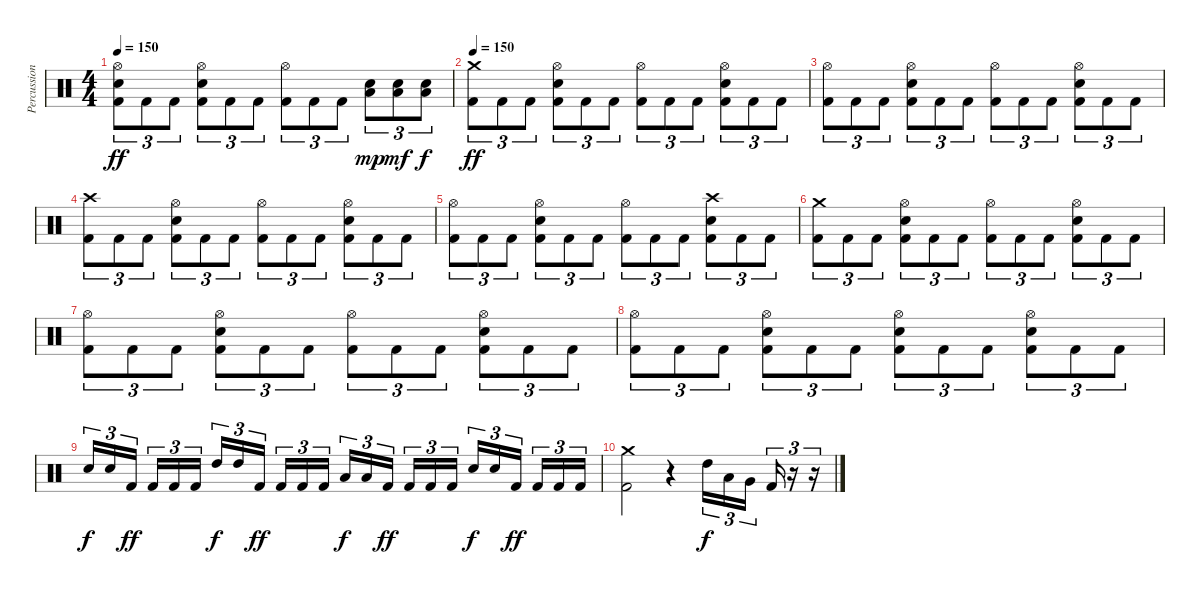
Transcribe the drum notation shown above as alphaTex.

\track ("Percussion" "Percussion") {instrument percussion}
\staff {score}
\articulation defaults
\ts (4 4)
\tempo 150
\clef neutral
\ks c
("Hi-Hat (open)" "Electric Snare (hit)" "Kick (hit) 2").8{tu (3 2) dy ff} "Kick (hit) 2".8{tu (3 2)} "Kick (hit) 2".8{tu (3 2)} ("Hi-Hat (open)" "Electric Snare (hit)" "Kick (hit) 2").8{tu (3 2)} "Kick (hit) 2".8{tu (3 2)} "Kick (hit) 2".8{tu (3 2)} ("Hi-Hat (open)" "Kick (hit) 2").8{tu (3 2)} "Kick (hit) 2".8{tu (3 2)} "Kick (hit) 2".8{tu (3 2)} ("Electric Snare (hit)" "Low Floor Tom (hit)").8{tu (3 2) dy mp} ("Electric Snare (hit)" "Low Floor Tom (hit)").8{tu (3 2) dy mf} ("Electric Snare (hit)" "Low Floor Tom (hit)").8{tu (3 2) dy f} |
\tempo 150
("Crash medium (hit)" "Kick (hit) 2").8{tu (3 2) dy ff} "Kick (hit) 2".8{tu (3 2)} "Kick (hit) 2".8{tu (3 2)} ("Hi-Hat (open)" "Electric Snare (hit)" "Kick (hit) 2").8{tu (3 2)} "Kick (hit) 2".8{tu (3 2)} "Kick (hit) 2".8{tu (3 2)} ("Hi-Hat (open)" "Kick (hit) 2").8{tu (3 2)} "Kick (hit) 2".8{tu (3 2)} "Kick (hit) 2".8{tu (3 2)} ("Hi-Hat (open)" "Electric Snare (hit)" "Kick (hit) 2").8{tu (3 2)} "Kick (hit) 2".8{tu (3 2)} "Kick (hit) 2".8{tu (3 2)} |
("Hi-Hat (open)" "Kick (hit) 2").8{tu (3 2)} "Kick (hit) 2".8{tu (3 2)} "Kick (hit) 2".8{tu (3 2)} ("Hi-Hat (open)" "Electric Snare (hit)" "Kick (hit) 2").8{tu (3 2)} "Kick (hit) 2".8{tu (3 2)} "Kick (hit) 2".8{tu (3 2)} ("Hi-Hat (open)" "Kick (hit) 2").8{tu (3 2)} "Kick (hit) 2".8{tu (3 2)} "Kick (hit) 2".8{tu (3 2)} ("Hi-Hat (open)" "Electric Snare (hit)" "Kick (hit) 2").8{tu (3 2)} "Kick (hit) 2".8{tu (3 2)} "Kick (hit) 2".8{tu (3 2)} |
("Crash high (hit)" "Kick (hit) 2").8{tu (3 2)} "Kick (hit) 2".8{tu (3 2)} "Kick (hit) 2".8{tu (3 2)} ("Hi-Hat (open)" "Electric Snare (hit)" "Kick (hit) 2").8{tu (3 2)} "Kick (hit) 2".8{tu (3 2)} "Kick (hit) 2".8{tu (3 2)} ("Hi-Hat (open)" "Kick (hit) 2").8{tu (3 2)} "Kick (hit) 2".8{tu (3 2)} "Kick (hit) 2".8{tu (3 2)} ("Hi-Hat (open)" "Electric Snare (hit)" "Kick (hit) 2").8{tu (3 2)} "Kick (hit) 2".8{tu (3 2)} "Kick (hit) 2".8{tu (3 2)} |
("Hi-Hat (open)" "Kick (hit) 2").8{tu (3 2)} "Kick (hit) 2".8{tu (3 2)} "Kick (hit) 2".8{tu (3 2)} ("Hi-Hat (open)" "Electric Snare (hit)" "Kick (hit) 2").8{tu (3 2)} "Kick (hit) 2".8{tu (3 2)} "Kick (hit) 2".8{tu (3 2)} ("Hi-Hat (open)" "Kick (hit) 2").8{tu (3 2)} "Kick (hit) 2".8{tu (3 2)} "Kick (hit) 2".8{tu (3 2)} ("Crash high (hit)" "Electric Snare (hit)" "Kick (hit) 2").8{tu (3 2)} "Kick (hit) 2".8{tu (3 2)} "Kick (hit) 2".8{tu (3 2)} |
("Crash medium (hit)" "Kick (hit) 2").8{tu (3 2)} "Kick (hit) 2".8{tu (3 2)} "Kick (hit) 2".8{tu (3 2)} ("Hi-Hat (open)" "Electric Snare (hit)" "Kick (hit) 2").8{tu (3 2)} "Kick (hit) 2".8{tu (3 2)} "Kick (hit) 2".8{tu (3 2)} ("Hi-Hat (open)" "Kick (hit) 2").8{tu (3 2)} "Kick (hit) 2".8{tu (3 2)} "Kick (hit) 2".8{tu (3 2)} ("Hi-Hat (open)" "Electric Snare (hit)" "Kick (hit) 2").8{tu (3 2)} "Kick (hit) 2".8{tu (3 2)} "Kick (hit) 2".8{tu (3 2)} |
("Hi-Hat (open)" "Kick (hit) 2").8{tu (3 2)} "Kick (hit) 2".8{tu (3 2)} "Kick (hit) 2".8{tu (3 2)} ("Hi-Hat (open)" "Electric Snare (hit)" "Kick (hit) 2").8{tu (3 2)} "Kick (hit) 2".8{tu (3 2)} "Kick (hit) 2".8{tu (3 2)} ("Hi-Hat (open)" "Kick (hit) 2").8{tu (3 2)} "Kick (hit) 2".8{tu (3 2)} "Kick (hit) 2".8{tu (3 2)} ("Hi-Hat (open)" "Electric Snare (hit)" "Kick (hit) 2").8{tu (3 2)} "Kick (hit) 2".8{tu (3 2)} "Kick (hit) 2".8{tu (3 2)} |
("Hi-Hat (open)" "Kick (hit) 2").8{tu (3 2)} "Kick (hit) 2".8{tu (3 2)} "Kick (hit) 2".8{tu (3 2)} ("Hi-Hat (open)" "Electric Snare (hit)" "Kick (hit) 2").8{tu (3 2)} "Kick (hit) 2".8{tu (3 2)} "Kick (hit) 2".8{tu (3 2)} ("Hi-Hat (open)" "Electric Snare (hit)" "Kick (hit) 2").8{tu (3 2)} "Kick (hit) 2".8{tu (3 2)} "Kick (hit) 2".8{tu (3 2)} ("Hi-Hat (open)" "Electric Snare (hit)" "Kick (hit) 2").8{tu (3 2)} "Kick (hit) 2".8{tu (3 2)} "Kick (hit) 2".8{tu (3 2)} |
"Electric Snare (hit)".16{tu (3 2) dy f} "Electric Snare (hit)".16{tu (3 2)} "Kick (hit) 2".16{tu (3 2) dy ff} "Kick (hit) 2".16{tu (3 2)} "Kick (hit) 2".16{tu (3 2)} "Kick (hit) 2".16{tu (3 2)} "High Tom (hit)".16{tu (3 2) dy f} "High Tom (hit)".16{tu (3 2)} "Kick (hit) 2".16{tu (3 2) dy ff} "Kick (hit) 2".16{tu (3 2)} "Kick (hit) 2".16{tu (3 2)} "Kick (hit) 2".16{tu (3 2)} "Low Tom (hit)".16{tu (3 2) dy f} "Low Tom (hit)".16{tu (3 2)} "Kick (hit) 2".16{tu (3 2) dy ff} "Kick (hit) 2".16{tu (3 2)} "Kick (hit) 2".16{tu (3 2)} "Kick (hit) 2".16{tu (3 2)} "Electric Snare (hit)".16{tu (3 2) dy f} "Electric Snare (hit)".16{tu (3 2)} "Kick (hit) 2".16{tu (3 2) dy ff} "Kick (hit) 2".16{tu (3 2)} "Kick (hit) 2".16{tu (3 2)} "Kick (hit) 2".16{tu (3 2)} |
("Crash medium (hit)" "Kick (hit) 2").2 r.4 "High Tom (hit)".16{tu (3 2) dy f} "Low Tom (hit)".16{tu (3 2)} "Very Low Tom (hit)".16{tu (3 2)} "Kick (hit) 2".16{tu (3 2)} r.16{tu (3 2)} r.16{tu (3 2)}
